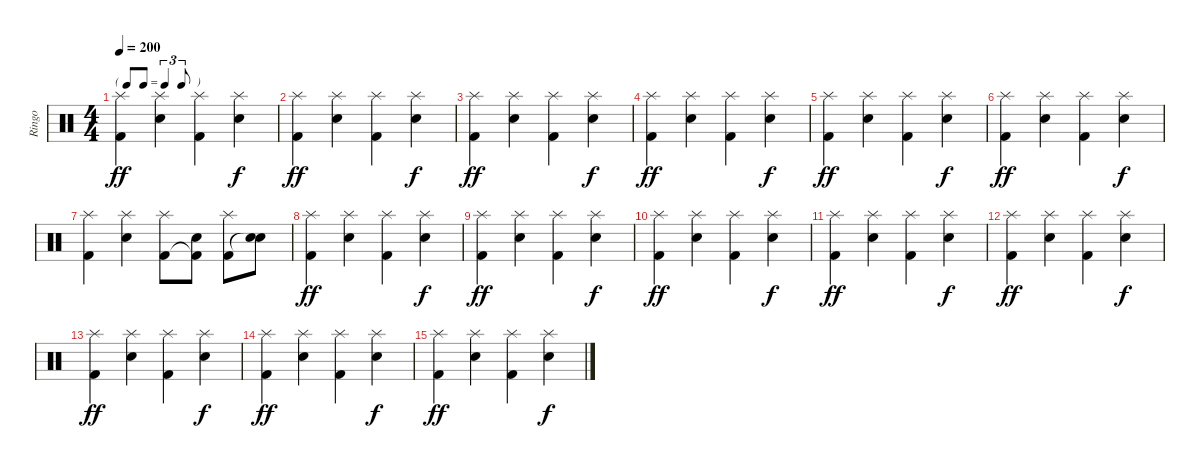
\track ("Ringo" "Ringo") {instrument percussion}
\staff {score}
\articulation defaults
\ts (4 4)
\tf triplet8th
\tempo 200
\clef neutral
\ks c
("Splash (hit)" "Kick (hit) 2").4{dy ff} ("Splash (hit)" "Electric Snare (hit)").4 ("Splash (hit)" "Kick (hit) 2").4 ("Splash (hit)" "Electric Snare (hit)").4{dy f} |
("Splash (hit)" "Kick (hit) 2").4{dy ff} ("Splash (hit)" "Electric Snare (hit)").4 ("Splash (hit)" "Kick (hit) 2").4 ("Splash (hit)" "Electric Snare (hit)").4{dy f} |
("Splash (hit)" "Kick (hit) 2").4{dy ff} ("Splash (hit)" "Electric Snare (hit)").4 ("Splash (hit)" "Kick (hit) 2").4 ("Splash (hit)" "Electric Snare (hit)").4{dy f} |
("Splash (hit)" "Kick (hit) 2").4{dy ff} ("Splash (hit)" "Electric Snare (hit)").4 ("Splash (hit)" "Kick (hit) 2").4 ("Splash (hit)" "Electric Snare (hit)").4{dy f} |
("Splash (hit)" "Kick (hit) 2").4{dy ff} ("Splash (hit)" "Electric Snare (hit)").4 ("Splash (hit)" "Kick (hit) 2").4 ("Splash (hit)" "Electric Snare (hit)").4{dy f} |
("Splash (hit)" "Kick (hit) 2").4{dy ff} ("Splash (hit)" "Electric Snare (hit)").4 ("Splash (hit)" "Kick (hit) 2").4 ("Splash (hit)" "Electric Snare (hit)").4{dy f} |
("Splash (hit)" "Kick (hit) 2").4 ("Splash (hit)" "Electric Snare (hit)").4 ("Splash (hit)" "Kick (hit) 2").8 ("Electric Snare (hit)" "Kick (hit) 2"{t}).8 ("Splash (hit)" "Kick (hit) 2").8 ("Electric Snare (hit)" "Snare (hit)"{t}).8 |
("Splash (hit)" "Kick (hit) 2").4{dy ff volume 11} ("Splash (hit)" "Electric Snare (hit)").4 ("Splash (hit)" "Kick (hit) 2").4 ("Splash (hit)" "Electric Snare (hit)").4{dy f} |
("Splash (hit)" "Kick (hit) 2").4{dy ff} ("Splash (hit)" "Electric Snare (hit)").4 ("Splash (hit)" "Kick (hit) 2").4 ("Splash (hit)" "Electric Snare (hit)").4{dy f} |
("Splash (hit)" "Kick (hit) 2").4{dy ff volume 9} ("Splash (hit)" "Electric Snare (hit)").4 ("Splash (hit)" "Kick (hit) 2").4 ("Splash (hit)" "Electric Snare (hit)").4{dy f} |
("Splash (hit)" "Kick (hit) 2").4{dy ff} ("Splash (hit)" "Electric Snare (hit)").4 ("Splash (hit)" "Kick (hit) 2").4 ("Splash (hit)" "Electric Snare (hit)").4{dy f} |
("Splash (hit)" "Kick (hit) 2").4{dy ff volume 7} ("Splash (hit)" "Electric Snare (hit)").4 ("Splash (hit)" "Kick (hit) 2").4 ("Splash (hit)" "Electric Snare (hit)").4{dy f} |
("Splash (hit)" "Kick (hit) 2").4{dy ff} ("Splash (hit)" "Electric Snare (hit)").4 ("Splash (hit)" "Kick (hit) 2").4 ("Splash (hit)" "Electric Snare (hit)").4{dy f} |
("Splash (hit)" "Kick (hit) 2").4{dy ff volume 5} ("Splash (hit)" "Electric Snare (hit)").4 ("Splash (hit)" "Kick (hit) 2").4 ("Splash (hit)" "Electric Snare (hit)").4{dy f} |
("Splash (hit)" "Kick (hit) 2").4{dy ff volume 3} ("Splash (hit)" "Electric Snare (hit)").4 ("Splash (hit)" "Kick (hit) 2").4 ("Splash (hit)" "Electric Snare (hit)").4{dy f}
